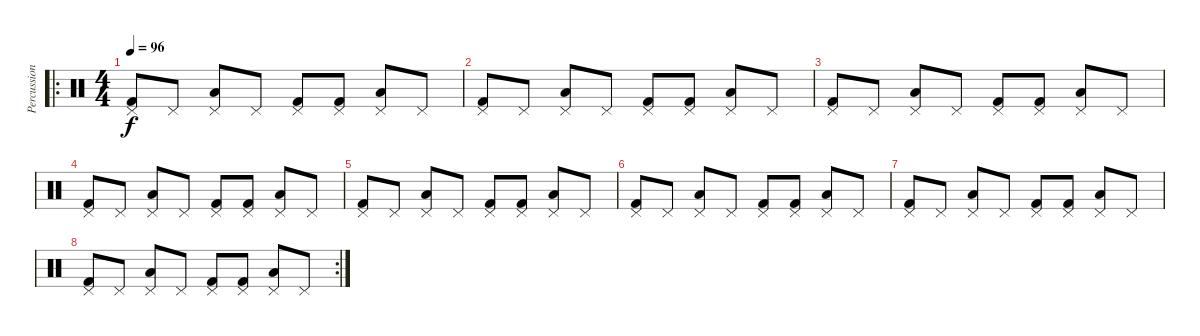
\track ("Percussion" "Percussion") {instrument percussion}
\staff {score}
\articulation defaults
\ro
\ts (4 4)
\tempo 96
\clef neutral
\ks c
("Pedal Hi-Hat (hit)" "Kick (hit) 2").8{dy f} "Pedal Hi-Hat (hit)".8 ("Pedal Hi-Hat (hit)" "Low Floor Tom (hit)").8 "Pedal Hi-Hat (hit)".8 ("Pedal Hi-Hat (hit)" "Kick (hit) 2").8 ("Pedal Hi-Hat (hit)" "Kick (hit) 2").8 ("Pedal Hi-Hat (hit)" "Low Floor Tom (hit)").8 "Pedal Hi-Hat (hit)".8 |
("Pedal Hi-Hat (hit)" "Kick (hit) 2").8 "Pedal Hi-Hat (hit)".8 ("Pedal Hi-Hat (hit)" "Low Floor Tom (hit)").8 "Pedal Hi-Hat (hit)".8 ("Pedal Hi-Hat (hit)" "Kick (hit) 2").8 ("Pedal Hi-Hat (hit)" "Kick (hit) 2").8 ("Pedal Hi-Hat (hit)" "Low Floor Tom (hit)").8 "Pedal Hi-Hat (hit)".8 |
("Pedal Hi-Hat (hit)" "Kick (hit) 2").8 "Pedal Hi-Hat (hit)".8 ("Pedal Hi-Hat (hit)" "Low Floor Tom (hit)").8 "Pedal Hi-Hat (hit)".8 ("Pedal Hi-Hat (hit)" "Kick (hit) 2").8 ("Pedal Hi-Hat (hit)" "Kick (hit) 2").8 ("Pedal Hi-Hat (hit)" "Low Floor Tom (hit)").8 "Pedal Hi-Hat (hit)".8 |
("Pedal Hi-Hat (hit)" "Kick (hit) 2").8 "Pedal Hi-Hat (hit)".8 ("Pedal Hi-Hat (hit)" "Low Floor Tom (hit)").8 "Pedal Hi-Hat (hit)".8 ("Pedal Hi-Hat (hit)" "Kick (hit) 2").8 ("Pedal Hi-Hat (hit)" "Kick (hit) 2").8 ("Pedal Hi-Hat (hit)" "Low Floor Tom (hit)").8 "Pedal Hi-Hat (hit)".8 |
("Pedal Hi-Hat (hit)" "Kick (hit) 2").8 "Pedal Hi-Hat (hit)".8 ("Pedal Hi-Hat (hit)" "Low Floor Tom (hit)").8 "Pedal Hi-Hat (hit)".8 ("Pedal Hi-Hat (hit)" "Kick (hit) 2").8 ("Pedal Hi-Hat (hit)" "Kick (hit) 2").8 ("Pedal Hi-Hat (hit)" "Low Floor Tom (hit)").8 "Pedal Hi-Hat (hit)".8 |
("Pedal Hi-Hat (hit)" "Kick (hit) 2").8 "Pedal Hi-Hat (hit)".8 ("Pedal Hi-Hat (hit)" "Low Floor Tom (hit)").8 "Pedal Hi-Hat (hit)".8 ("Pedal Hi-Hat (hit)" "Kick (hit) 2").8 ("Pedal Hi-Hat (hit)" "Kick (hit) 2").8 ("Pedal Hi-Hat (hit)" "Low Floor Tom (hit)").8 "Pedal Hi-Hat (hit)".8 |
("Pedal Hi-Hat (hit)" "Kick (hit) 2").8 "Pedal Hi-Hat (hit)".8 ("Pedal Hi-Hat (hit)" "Low Floor Tom (hit)").8 "Pedal Hi-Hat (hit)".8 ("Pedal Hi-Hat (hit)" "Kick (hit) 2").8 ("Pedal Hi-Hat (hit)" "Kick (hit) 2").8 ("Pedal Hi-Hat (hit)" "Low Floor Tom (hit)").8 "Pedal Hi-Hat (hit)".8 |
\rc 2
("Pedal Hi-Hat (hit)" "Kick (hit) 2").8 "Pedal Hi-Hat (hit)".8 ("Pedal Hi-Hat (hit)" "Low Floor Tom (hit)").8 "Pedal Hi-Hat (hit)".8 ("Pedal Hi-Hat (hit)" "Kick (hit) 2").8 ("Pedal Hi-Hat (hit)" "Kick (hit) 2").8 ("Pedal Hi-Hat (hit)" "Low Floor Tom (hit)").8 "Pedal Hi-Hat (hit)".8
